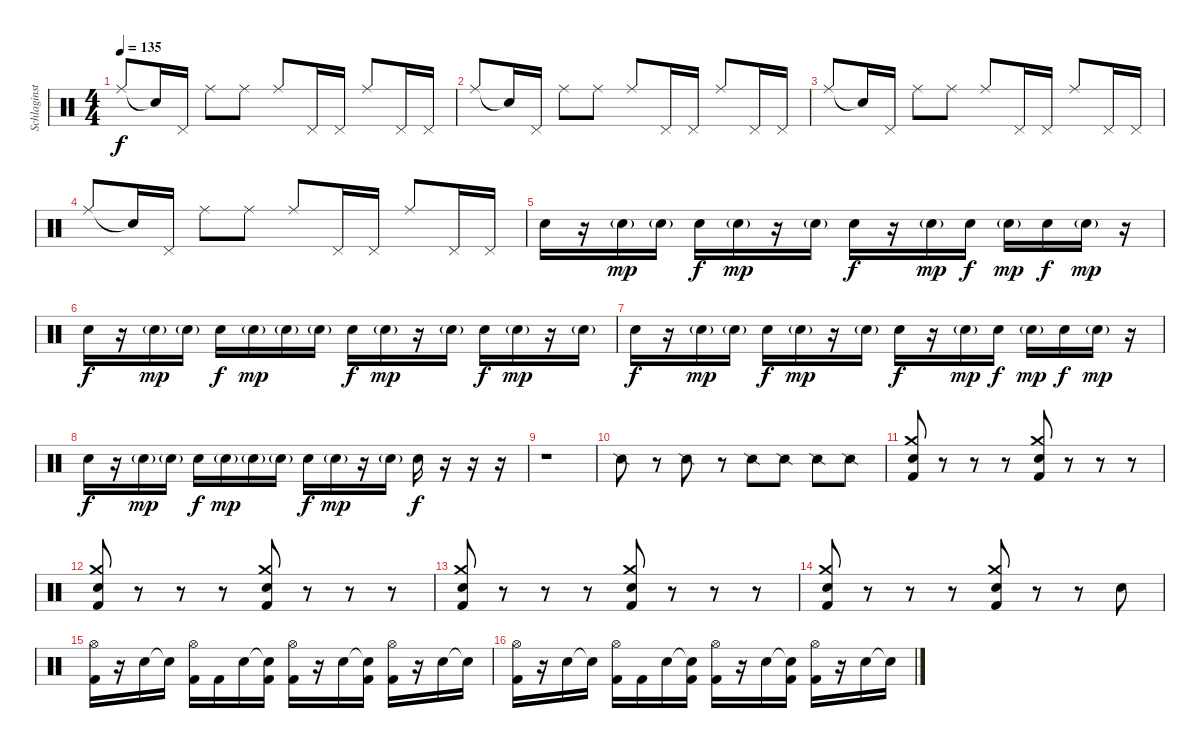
\track ("Schlaginstrumente - Auswahl" "Schlaginst") {instrument percussion}
\staff {score}
\articulation defaults
\ts (4 4)
\tempo 135
\clef neutral
\ks c "Ride (middle)".8{dy f} "Snare (hit)"{t}.16 "Pedal Hi-Hat (hit)".16 "Ride (middle)".8 "Ride (middle)".8 "Ride (middle)".8 "Pedal Hi-Hat (hit)".16 "Pedal Hi-Hat (hit)".16 "Ride (middle)".8 "Pedal Hi-Hat (hit)".16 "Pedal Hi-Hat (hit)".16
|
"Ride (middle)".8 "Snare (hit)"{t}.16 "Pedal Hi-Hat (hit)".16 "Ride (middle)".8 "Ride (middle)".8 "Ride (middle)".8 "Pedal Hi-Hat (hit)".16 "Pedal Hi-Hat (hit)".16 "Ride (middle)".8 "Pedal Hi-Hat (hit)".16 "Pedal Hi-Hat (hit)".16 |
"Ride (middle)".8 "Snare (hit)"{t}.16 "Pedal Hi-Hat (hit)".16 "Ride (middle)".8 "Ride (middle)".8 "Ride (middle)".8 "Pedal Hi-Hat (hit)".16 "Pedal Hi-Hat (hit)".16 "Ride (middle)".8 "Pedal Hi-Hat (hit)".16 "Pedal Hi-Hat (hit)".16 |
"Ride (middle)".8 "Snare (hit)"{t}.16 "Pedal Hi-Hat (hit)".16 "Ride (middle)".8 "Ride (middle)".8 "Ride (middle)".8 "Pedal Hi-Hat (hit)".16 "Pedal Hi-Hat (hit)".16 "Ride (middle)".8 "Pedal Hi-Hat (hit)".16 "Pedal Hi-Hat (hit)".16 |
"Snare (hit) 2".16 r.16 "Snare (hit) 2"{g}.16{dy mp} "Snare (hit) 2"{g}.16 "Snare (hit) 2".16{dy f} "Snare (hit) 2"{g}.16{dy mp} r.16 "Snare (hit) 2"{g}.16 "Snare (hit) 2".16{dy f} r.16 "Snare (hit) 2"{g}.16{dy mp} "Snare (hit) 2".16{dy f} "Snare (hit) 2"{g}.16{dy mp} "Snare (hit) 2".16{dy f} "Snare (hit) 2"{g}.16{dy mp} r.16 |
"Snare (hit) 2".16{dy f} r.16 "Snare (hit) 2"{g}.16{dy mp} "Snare (hit) 2"{g}.16 "Snare (hit) 2".16{dy f} "Snare (hit) 2"{g}.16{dy mp} "Snare (hit) 2"{g}.16 "Snare (hit) 2"{g}.16 "Snare (hit) 2".16{dy f} "Snare (hit) 2"{g}.16{dy mp} r.16 "Snare (hit) 2"{g}.16 "Snare (hit) 2".16{dy f} "Snare (hit) 2"{g}.16{dy mp} r.16 "Snare (hit) 2"{g}.16 |
"Snare (hit) 2".16{dy f} r.16 "Snare (hit) 2"{g}.16{dy mp} "Snare (hit) 2"{g}.16 "Snare (hit) 2".16{dy f} "Snare (hit) 2"{g}.16{dy mp} r.16 "Snare (hit) 2"{g}.16 "Snare (hit) 2".16{dy f} r.16 "Snare (hit) 2"{g}.16{dy mp} "Snare (hit) 2".16{dy f} "Snare (hit) 2"{g}.16{dy mp} "Snare (hit) 2".16{dy f} "Snare (hit) 2"{g}.16{dy mp} r.16 |
"Snare (hit) 2".16{dy f} r.16 "Snare (hit) 2"{g}.16{dy mp} "Snare (hit) 2"{g}.16 "Snare (hit) 2".16{dy f} "Snare (hit) 2"{g}.16{dy mp} "Snare (hit) 2"{g}.16 "Snare (hit) 2"{g}.16 "Snare (hit) 2".16{dy f} "Snare (hit) 2"{g}.16{dy mp} r.16 "Snare (hit) 2"{g}.16 "Snare (hit) 2".16{dy f} r.16 r.16 r.16 |
r.1 |
"Snare (side stick) 2".8 r.8 "Snare (side stick) 2".8 r.8 "Snare (side stick) 2".8 "Snare (side stick) 2".8 "Snare (side stick) 2".8 "Snare (side stick) 2".8 |
("Crash medium (hit)" "Snare (hit) 2" "Kick (hit) 2").8 r.8 r.8 r.8 ("Crash medium (hit)" "Snare (hit) 2" "Kick (hit) 2").8 r.8 r.8 r.8 |
("Crash medium (hit)" "Snare (hit) 2" "Kick (hit) 2").8 r.8 r.8 r.8 ("Crash medium (hit)" "Snare (hit) 2" "Kick (hit) 2").8 r.8 r.8 r.8 |
("Crash medium (hit)" "Snare (hit) 2" "Kick (hit) 2").8 r.8 r.8 r.8 ("Crash medium (hit)" "Snare (hit) 2" "Kick (hit) 2").8 r.8 r.8 r.8 |
("Crash medium (hit)" "Snare (hit) 2" "Kick (hit) 2").8 r.8 r.8 r.8 ("Crash medium (hit)" "Snare (hit) 2" "Kick (hit) 2").8 r.8 r.8 "Snare (hit) 2".8 |
("Hi-Hat (open)" "Kick (hit) 2").16 r.16 "Snare (hit) 2".16 "Snare (hit)"{t}.16 ("Hi-Hat (open)" "Kick (hit) 2").16 "Kick (hit) 2".16 "Snare (hit) 2".16 ("Snare (hit)"{t} "Kick (hit) 2").16 ("Hi-Hat (open)" "Kick (hit) 2").16 r.16 "Snare (hit) 2".16 ("Snare (hit)"{t} "Kick (hit) 2").16 ("Hi-Hat (open)" "Kick (hit) 2").16 r.16 "Snare (hit) 2".16 "Snare (hit)"{t}.16 |
("Hi-Hat (open)" "Kick (hit) 2").16 r.16 "Snare (hit) 2".16 "Snare (hit)"{t}.16 ("Hi-Hat (open)" "Kick (hit) 2").16 "Kick (hit) 2".16 "Snare (hit) 2".16 ("Snare (hit)"{t} "Kick (hit) 2").16 ("Hi-Hat (open)" "Kick (hit) 2").16 r.16 "Snare (hit) 2".16 ("Snare (hit)"{t} "Kick (hit) 2").16 ("Hi-Hat (open)" "Kick (hit) 2").16 r.16 "Snare (hit) 2".16 "Snare (hit)"{t}.16
